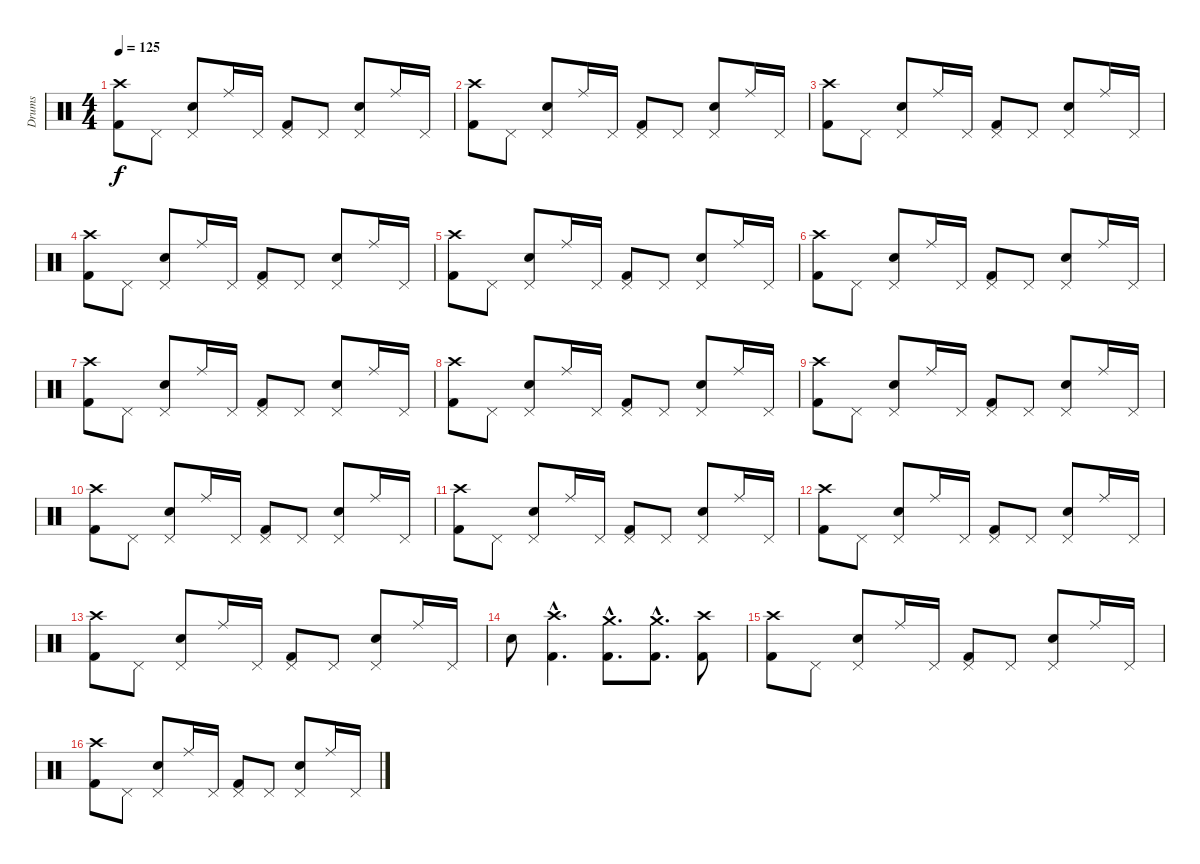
\track ("Drums" "Drums") {instrument percussion}
\staff {score}
\articulation defaults
\ts (4 4)
\tempo 125
\clef neutral
\ks c
("Crash high (hit)" "Kick (hit) 2").8{dy f} "Pedal Hi-Hat (hit)".8 ("Pedal Hi-Hat (hit)" "Snare (hit) 2").8 "Ride (middle)".16 "Pedal Hi-Hat (hit)".16 ("Pedal Hi-Hat (hit)" "Kick (hit) 2").8 "Pedal Hi-Hat (hit)".8 ("Pedal Hi-Hat (hit)" "Snare (hit) 2").8 "Ride (middle)".16 "Pedal Hi-Hat (hit)".16 |
("Crash high (hit)" "Kick (hit) 2").8 "Pedal Hi-Hat (hit)".8 ("Pedal Hi-Hat (hit)" "Snare (hit) 2").8 "Ride (middle)".16 "Pedal Hi-Hat (hit)".16 ("Pedal Hi-Hat (hit)" "Kick (hit) 2").8 "Pedal Hi-Hat (hit)".8 ("Pedal Hi-Hat (hit)" "Snare (hit) 2").8 "Ride (middle)".16 "Pedal Hi-Hat (hit)".16 |
("Crash high (hit)" "Kick (hit) 2").8 "Pedal Hi-Hat (hit)".8 ("Pedal Hi-Hat (hit)" "Snare (hit) 2").8 "Ride (middle)".16 "Pedal Hi-Hat (hit)".16 ("Pedal Hi-Hat (hit)" "Kick (hit) 2").8 "Pedal Hi-Hat (hit)".8 ("Pedal Hi-Hat (hit)" "Snare (hit) 2").8 "Ride (middle)".16 "Pedal Hi-Hat (hit)".16 |
("Crash high (hit)" "Kick (hit) 2").8 "Pedal Hi-Hat (hit)".8 ("Pedal Hi-Hat (hit)" "Snare (hit) 2").8 "Ride (middle)".16 "Pedal Hi-Hat (hit)".16 ("Pedal Hi-Hat (hit)" "Kick (hit) 2").8 "Pedal Hi-Hat (hit)".8 ("Pedal Hi-Hat (hit)" "Snare (hit) 2").8 "Ride (middle)".16 "Pedal Hi-Hat (hit)".16 |
("Crash high (hit)" "Kick (hit) 2").8 "Pedal Hi-Hat (hit)".8 ("Pedal Hi-Hat (hit)" "Snare (hit) 2").8 "Ride (middle)".16 "Pedal Hi-Hat (hit)".16 ("Pedal Hi-Hat (hit)" "Kick (hit) 2").8 "Pedal Hi-Hat (hit)".8 ("Pedal Hi-Hat (hit)" "Snare (hit) 2").8 "Ride (middle)".16 "Pedal Hi-Hat (hit)".16 |
("Crash high (hit)" "Kick (hit) 2").8 "Pedal Hi-Hat (hit)".8 ("Pedal Hi-Hat (hit)" "Snare (hit) 2").8 "Ride (middle)".16 "Pedal Hi-Hat (hit)".16 ("Pedal Hi-Hat (hit)" "Kick (hit) 2").8 "Pedal Hi-Hat (hit)".8 ("Pedal Hi-Hat (hit)" "Snare (hit) 2").8 "Ride (middle)".16 "Pedal Hi-Hat (hit)".16 |
("Crash high (hit)" "Kick (hit) 2").8 "Pedal Hi-Hat (hit)".8 ("Pedal Hi-Hat (hit)" "Snare (hit) 2").8 "Ride (middle)".16 "Pedal Hi-Hat (hit)".16 ("Pedal Hi-Hat (hit)" "Kick (hit) 2").8 "Pedal Hi-Hat (hit)".8 ("Pedal Hi-Hat (hit)" "Snare (hit) 2").8 "Ride (middle)".16 "Pedal Hi-Hat (hit)".16 |
("Crash high (hit)" "Kick (hit) 2").8 "Pedal Hi-Hat (hit)".8 ("Pedal Hi-Hat (hit)" "Snare (hit) 2").8 "Ride (middle)".16 "Pedal Hi-Hat (hit)".16 ("Pedal Hi-Hat (hit)" "Kick (hit) 2").8 "Pedal Hi-Hat (hit)".8 ("Pedal Hi-Hat (hit)" "Snare (hit) 2").8 "Ride (middle)".16 "Pedal Hi-Hat (hit)".16 |
("Crash high (hit)" "Kick (hit) 2").8 "Pedal Hi-Hat (hit)".8 ("Pedal Hi-Hat (hit)" "Snare (hit) 2").8 "Ride (middle)".16 "Pedal Hi-Hat (hit)".16 ("Pedal Hi-Hat (hit)" "Kick (hit) 2").8 "Pedal Hi-Hat (hit)".8 ("Pedal Hi-Hat (hit)" "Snare (hit) 2").8 "Ride (middle)".16 "Pedal Hi-Hat (hit)".16 |
("Crash high (hit)" "Kick (hit) 2").8 "Pedal Hi-Hat (hit)".8 ("Pedal Hi-Hat (hit)" "Snare (hit) 2").8 "Ride (middle)".16 "Pedal Hi-Hat (hit)".16 ("Pedal Hi-Hat (hit)" "Kick (hit) 2").8 "Pedal Hi-Hat (hit)".8 ("Pedal Hi-Hat (hit)" "Snare (hit) 2").8 "Ride (middle)".16 "Pedal Hi-Hat (hit)".16 |
("Crash high (hit)" "Kick (hit) 2").8 "Pedal Hi-Hat (hit)".8 ("Pedal Hi-Hat (hit)" "Snare (hit) 2").8 "Ride (middle)".16 "Pedal Hi-Hat (hit)".16 ("Pedal Hi-Hat (hit)" "Kick (hit) 2").8 "Pedal Hi-Hat (hit)".8 ("Pedal Hi-Hat (hit)" "Snare (hit) 2").8 "Ride (middle)".16 "Pedal Hi-Hat (hit)".16 |
("Crash high (hit)" "Kick (hit) 2").8 "Pedal Hi-Hat (hit)".8 ("Pedal Hi-Hat (hit)" "Snare (hit) 2").8 "Ride (middle)".16 "Pedal Hi-Hat (hit)".16 ("Pedal Hi-Hat (hit)" "Kick (hit) 2").8 "Pedal Hi-Hat (hit)".8 ("Pedal Hi-Hat (hit)" "Snare (hit) 2").8 "Ride (middle)".16 "Pedal Hi-Hat (hit)".16 |
("Crash high (hit)" "Kick (hit) 2").8 "Pedal Hi-Hat (hit)".8 ("Pedal Hi-Hat (hit)" "Snare (hit) 2").8 "Ride (middle)".16 "Pedal Hi-Hat (hit)".16 ("Pedal Hi-Hat (hit)" "Kick (hit) 2").8 "Pedal Hi-Hat (hit)".8 ("Pedal Hi-Hat (hit)" "Snare (hit) 2").8 "Ride (middle)".16 "Pedal Hi-Hat (hit)".16 |
"Snare (hit) 2".8 ("Crash high (hit)"{hac} "Kick (hit) 2"{hac}).4{d} ("Crash medium (hit)"{hac} "Kick (hit) 2"{hac}).8{d} ("Crash medium (hit)"{hac} "Kick (hit) 2"{hac}).8{d} ("Crash high (hit)" "Kick (hit) 2").8 |
("Crash high (hit)" "Kick (hit) 2").8 "Pedal Hi-Hat (hit)".8 ("Pedal Hi-Hat (hit)" "Snare (hit) 2").8 "Ride (middle)".16 "Pedal Hi-Hat (hit)".16 ("Pedal Hi-Hat (hit)" "Kick (hit) 2").8 "Pedal Hi-Hat (hit)".8 ("Pedal Hi-Hat (hit)" "Snare (hit) 2").8 "Ride (middle)".16 "Pedal Hi-Hat (hit)".16 |
("Crash high (hit)" "Kick (hit) 2").8 "Pedal Hi-Hat (hit)".8 ("Pedal Hi-Hat (hit)" "Snare (hit) 2").8 "Ride (middle)".16 "Pedal Hi-Hat (hit)".16 ("Pedal Hi-Hat (hit)" "Kick (hit) 2").8 "Pedal Hi-Hat (hit)".8 ("Pedal Hi-Hat (hit)" "Snare (hit) 2").8 "Ride (middle)".16 "Pedal Hi-Hat (hit)".16
